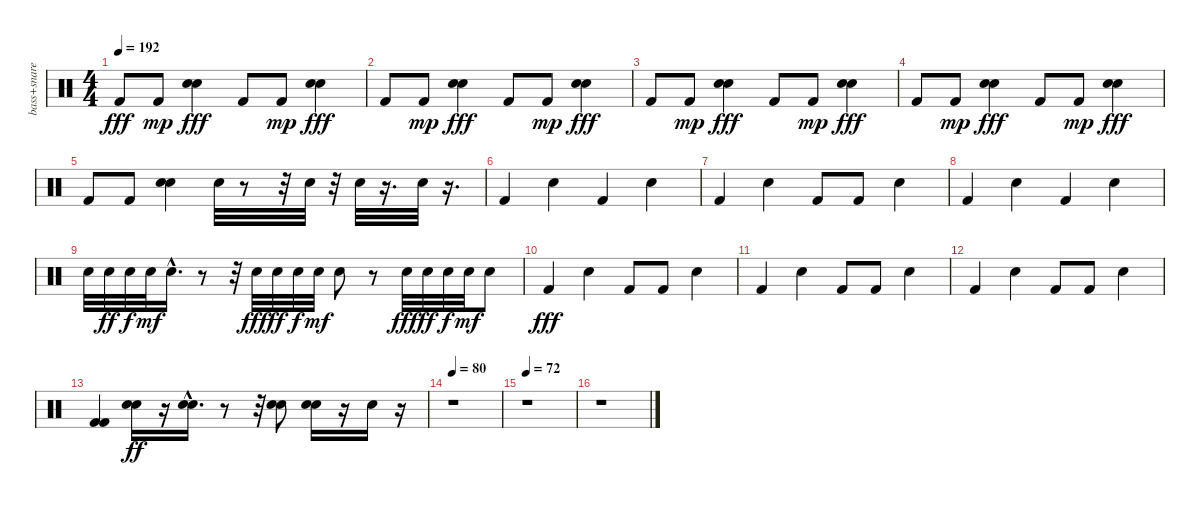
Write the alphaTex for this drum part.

\track ("bass+snare" "bass+snare") {instrument percussion}
\staff {score}
\articulation defaults
\ts (4 4)
\tempo 192
\clef neutral
\ks c "Kick (hit) 2".8{dy fff} "Kick (hit) 2".8{dy mp}
("Electric Snare (hit)" "Electric Snare (hit)").4{dy fff} "Kick (hit) 2".8 "Kick (hit) 2".8{dy mp} ("Electric Snare (hit)" "Electric Snare (hit)").4{dy fff} |
"Kick (hit) 2".8 "Kick (hit) 2".8{dy mp} ("Electric Snare (hit)" "Electric Snare (hit)").4{dy fff} "Kick (hit) 2".8 "Kick (hit) 2".8{dy mp} ("Electric Snare (hit)" "Electric Snare (hit)").4{dy fff} |
"Kick (hit) 2".8 "Kick (hit) 2".8{dy mp} ("Electric Snare (hit)" "Electric Snare (hit)").4{dy fff} "Kick (hit) 2".8 "Kick (hit) 2".8{dy mp} ("Electric Snare (hit)" "Electric Snare (hit)").4{dy fff} |
"Kick (hit) 2".8 "Kick (hit) 2".8{dy mp} ("Electric Snare (hit)" "Electric Snare (hit)").4{dy fff} "Kick (hit) 2".8 "Kick (hit) 2".8{dy mp} ("Electric Snare (hit)" "Electric Snare (hit)").4{dy fff} |
"Kick (hit) 2".8 "Kick (hit) 2".8 ("Electric Snare (hit)" "Electric Snare (hit)").4 "Electric Snare (hit)".32 r.8 r.32 "Electric Snare (hit)".32 r.32 "Electric Snare (hit)".32 r.16{d} "Electric Snare (hit)".32 r.16{d} |
"Kick (hit) 2".4 "Snare (hit) 2".4 "Kick (hit) 2".4 "Snare (hit) 2".4 |
"Kick (hit) 2".4 "Snare (hit) 2".4 "Kick (hit) 2".8 "Kick (hit) 2".8 "Snare (hit) 2".4 |
"Kick (hit) 2".4 "Snare (hit) 2".4 "Kick (hit) 2".4 "Snare (hit) 2".4 |
"Electric Snare (hit)".32 "Electric Snare (hit)".32{dy ff} "Electric Snare (hit)".32{dy f} "Electric Snare (hit)".32{dy mf} "Electric Snare (hit)"{hac}.16{d} r.8 r.32 "Electric Snare (hit)".32{dy fff} "Electric Snare (hit)".32{dy ff} "Electric Snare (hit)".32{dy f} "Electric Snare (hit)".32{dy mf} "Electric Snare (hit)".8 r.8 "Electric Snare (hit)".32{dy fff} "Electric Snare (hit)".32{dy ff} "Electric Snare (hit)".32{dy f} "Electric Snare (hit)".32{dy mf} "Electric Snare (hit)".8 |
"Kick (hit) 2".4{dy fff} "Snare (hit) 2".4 "Kick (hit) 2".8 "Kick (hit) 2".8 "Snare (hit) 2".4 |
"Kick (hit) 2".4 "Snare (hit) 2".4 "Kick (hit) 2".8 "Kick (hit) 2".8 "Snare (hit) 2".4 |
"Kick (hit) 2".4 "Snare (hit) 2".4 "Kick (hit) 2".8 "Kick (hit) 2".8 "Snare (hit) 2".4 |
("Kick (hit) 2" "Kick (hit) 2").4 ("Electric Snare (hit)" "Snare (hit) 2").16{dy ff} r.16 ("Electric Snare (hit)" "Snare (hit) 2"{hac}).16{d} r.8 r.32 ("Electric Snare (hit)" "Snare (hit) 2").8 ("Electric Snare (hit)" "Snare (hit) 2").16 r.16 "Snare (hit) 2".16 r.16 |
\tempo 80
r.1 |
\tempo 72
r.1 |
r.1
